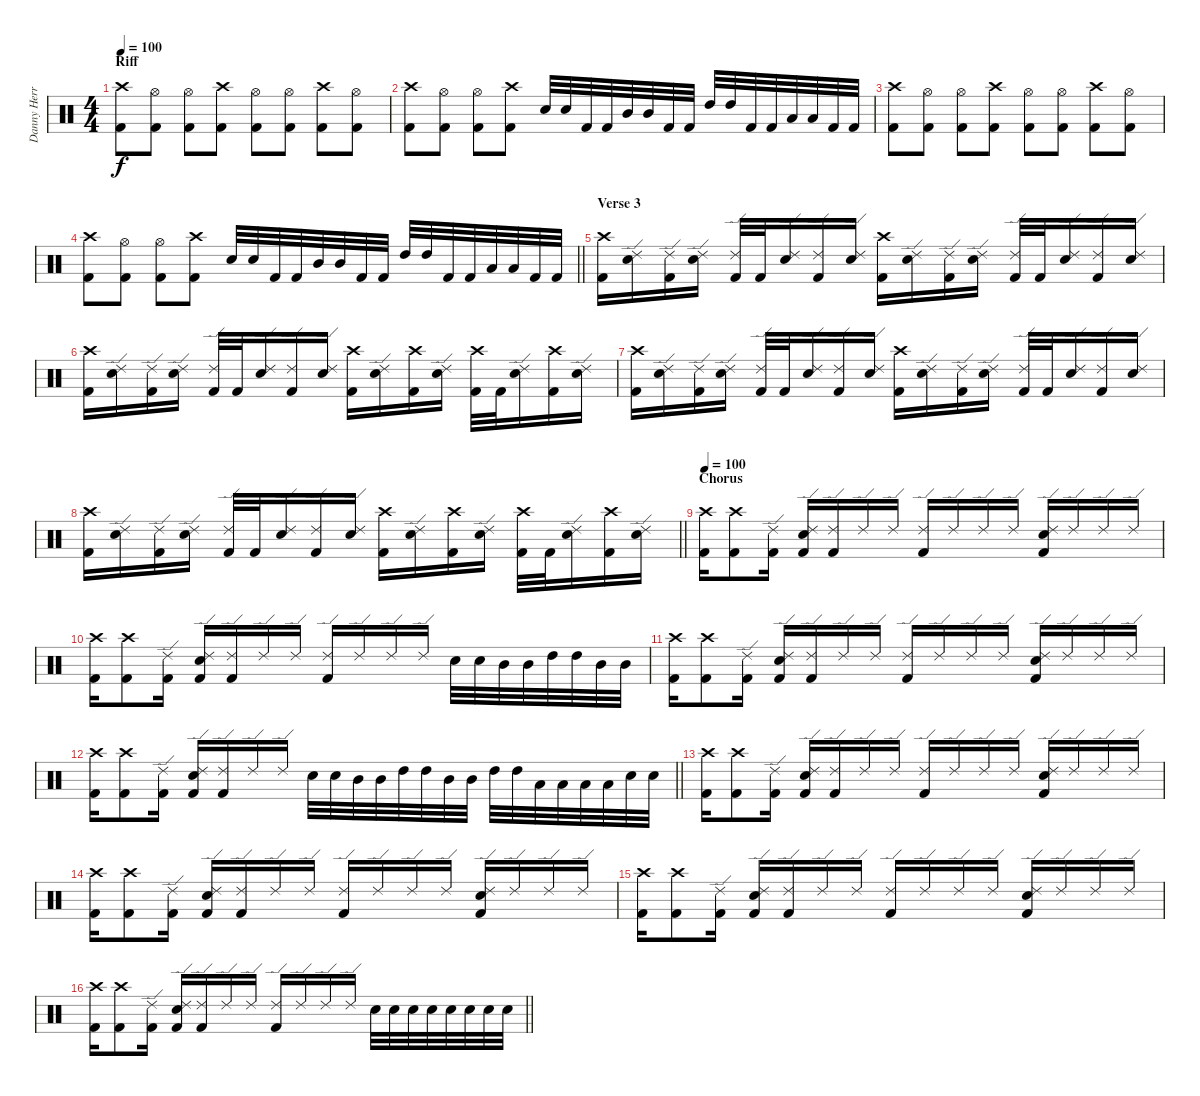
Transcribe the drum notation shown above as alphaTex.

\track ("Danny Herrera" "Danny Herr") {instrument percussion}
\staff {score}
\articulation defaults
\ts (4 4)
\section ("" "Riff")
\tempo 100
\clef neutral
\ks c
("Kick (hit) 2" "Crash high (hit)").8{dy f} ("Kick (hit) 2" "Hi-Hat (open)").8 ("Kick (hit) 2" "Hi-Hat (open)").8 ("Kick (hit) 2" "Crash high (hit)").8 ("Kick (hit) 2" "Hi-Hat (open)").8 ("Kick (hit) 2" "Hi-Hat (open)").8 ("Kick (hit) 2" "Crash high (hit)").8 ("Kick (hit) 2" "Hi-Hat (open)").8 |
("Kick (hit) 2" "Crash high (hit)").8 ("Kick (hit) 2" "Hi-Hat (open)").8 ("Kick (hit) 2" "Hi-Hat (open)").8 ("Kick (hit) 2" "Crash high (hit)").8 "Snare (hit) 2".32 "Snare (hit) 2".32 "Kick (hit) 2".32 "Kick (hit) 2".32 "Mid Tom (hit)".32 "Mid Tom (hit)".32 "Kick (hit) 2".32 "Kick (hit) 2".32 "High Tom (hit)".32 "High Tom (hit)".32 "Kick (hit) 2".32 "Kick (hit) 2".32 "Low Tom (hit)".32 "Low Tom (hit)".32 "Kick (hit) 2".32 "Kick (hit) 2".32 |
("Kick (hit) 2" "Crash high (hit)").8 ("Kick (hit) 2" "Hi-Hat (open)").8 ("Kick (hit) 2" "Hi-Hat (open)").8 ("Kick (hit) 2" "Crash high (hit)").8 ("Kick (hit) 2" "Hi-Hat (open)").8 ("Kick (hit) 2" "Hi-Hat (open)").8 ("Kick (hit) 2" "Crash high (hit)").8 ("Kick (hit) 2" "Hi-Hat (open)").8 |
\barLineRight lightlight
("Kick (hit) 2" "Crash high (hit)").8 ("Kick (hit) 2" "Hi-Hat (open)").8 ("Kick (hit) 2" "Hi-Hat (open)").8 ("Kick (hit) 2" "Crash high (hit)").8 "Snare (hit) 2".32 "Snare (hit) 2".32 "Kick (hit) 2".32 "Kick (hit) 2".32 "Mid Tom (hit)".32 "Mid Tom (hit)".32 "Kick (hit) 2".32 "Kick (hit) 2".32 "High Tom (hit)".32 "High Tom (hit)".32 "Kick (hit) 2".32 "Kick (hit) 2".32 "Low Tom (hit)".32 "Low Tom (hit)".32 "Kick (hit) 2".32 "Kick (hit) 2".32 |
\section ("" "Verse 3")
("Kick (hit) 2" "Crash high (hit)").16 ("Snare (hit) 2" "Ride (edge) 2").16 ("Kick (hit) 2" "Ride (edge) 2").16 ("Snare (hit) 2" "Ride (edge) 2").16 ("Kick (hit) 2" "Ride (edge) 2").32 "Kick (hit) 2".32 ("Snare (hit) 2" "Ride (edge) 2").16 ("Kick (hit) 2" "Ride (edge) 2").16 ("Snare (hit) 2" "Ride (edge) 2").16 ("Kick (hit) 2" "Crash high (hit)").16 ("Snare (hit) 2" "Ride (edge) 2").16 ("Kick (hit) 2" "Ride (edge) 2").16 ("Snare (hit) 2" "Ride (edge) 2").16 ("Kick (hit) 2" "Ride (edge) 2").32 "Kick (hit) 2".32 ("Snare (hit) 2" "Ride (edge) 2").16 ("Kick (hit) 2" "Ride (edge) 2").16 ("Snare (hit) 2" "Ride (edge) 2").16 |
("Kick (hit) 2" "Crash high (hit)").16 ("Snare (hit) 2" "Ride (edge) 2").16 ("Kick (hit) 2" "Ride (edge) 2").16 ("Snare (hit) 2" "Ride (edge) 2").16 ("Kick (hit) 2" "Ride (edge) 2").32 "Kick (hit) 2".32 ("Snare (hit) 2" "Ride (edge) 2").16 ("Kick (hit) 2" "Ride (edge) 2").16 ("Snare (hit) 2" "Ride (edge) 2").16 ("Kick (hit) 2" "Crash high (hit)").16 ("Snare (hit) 2" "Ride (edge) 2").16 ("Kick (hit) 2" "Crash high (hit)").16 ("Snare (hit) 2" "Ride (edge) 2").16 ("Kick (hit) 2" "Crash high (hit)").32 "Kick (hit) 2".32 ("Snare (hit) 2" "Ride (edge) 2").16 ("Kick (hit) 2" "Crash high (hit)").16 ("Snare (hit) 2" "Ride (edge) 2").16 |
("Kick (hit) 2" "Crash high (hit)").16 ("Snare (hit) 2" "Ride (edge) 2").16 ("Kick (hit) 2" "Ride (edge) 2").16 ("Snare (hit) 2" "Ride (edge) 2").16 ("Kick (hit) 2" "Ride (edge) 2").32 "Kick (hit) 2".32 ("Snare (hit) 2" "Ride (edge) 2").16 ("Kick (hit) 2" "Ride (edge) 2").16 ("Snare (hit) 2" "Ride (edge) 2").16 ("Kick (hit) 2" "Crash high (hit)").16 ("Snare (hit) 2" "Ride (edge) 2").16 ("Kick (hit) 2" "Ride (edge) 2").16 ("Snare (hit) 2" "Ride (edge) 2").16 ("Kick (hit) 2" "Ride (edge) 2").32 "Kick (hit) 2".32 ("Snare (hit) 2" "Ride (edge) 2").16 ("Kick (hit) 2" "Ride (edge) 2").16 ("Snare (hit) 2" "Ride (edge) 2").16 |
\barLineRight lightlight
("Kick (hit) 2" "Crash high (hit)").16 ("Snare (hit) 2" "Ride (edge) 2").16 ("Kick (hit) 2" "Ride (edge) 2").16 ("Snare (hit) 2" "Ride (edge) 2").16 ("Kick (hit) 2" "Ride (edge) 2").32 "Kick (hit) 2".32 ("Snare (hit) 2" "Ride (edge) 2").16 ("Kick (hit) 2" "Ride (edge) 2").16 ("Snare (hit) 2" "Ride (edge) 2").16 ("Kick (hit) 2" "Crash high (hit)").16 ("Snare (hit) 2" "Ride (edge) 2").16 ("Kick (hit) 2" "Crash high (hit)").16 ("Snare (hit) 2" "Ride (edge) 2").16 ("Kick (hit) 2" "Crash high (hit)").32 "Kick (hit) 2".32 ("Snare (hit) 2" "Ride (edge) 2").16 ("Kick (hit) 2" "Crash high (hit)").16 ("Snare (hit) 2" "Ride (edge) 2").16 |
\section ("" "Chorus")
\tempo 100
("Kick (hit) 2" "Crash high (hit)").16 ("Kick (hit) 2" "Crash high (hit)").8 ("Kick (hit) 2" "Ride (edge) 2").16 ("Kick (hit) 2" "Snare (hit) 2" "Ride (edge) 2").16 ("Kick (hit) 2" "Ride (edge) 2").16 "Ride (edge) 2".16 "Ride (edge) 2".16 ("Kick (hit) 2" "Ride (edge) 2").16 "Ride (edge) 2".16 "Ride (edge) 2".16 "Ride (edge) 2".16 ("Kick (hit) 2" "Snare (hit) 2" "Ride (edge) 2").16 "Ride (edge) 2".16 "Ride (edge) 2".16 "Ride (edge) 2".16 |
("Kick (hit) 2" "Crash high (hit)").16 ("Kick (hit) 2" "Crash high (hit)").8 ("Kick (hit) 2" "Ride (edge) 2").16 ("Kick (hit) 2" "Snare (hit) 2" "Ride (edge) 2").16 ("Kick (hit) 2" "Ride (edge) 2").16 "Ride (edge) 2".16 "Ride (edge) 2".16 ("Kick (hit) 2" "Ride (edge) 2").16 "Ride (edge) 2".16 "Ride (edge) 2".16 "Ride (edge) 2".16 "Snare (hit) 2".32 "Snare (hit) 2".32 "Mid Tom (hit)".32 "Mid Tom (hit)".32 "High Tom (hit)".32 "High Tom (hit)".32 "Mid Tom (hit)".32 "Mid Tom (hit)".32 |
("Kick (hit) 2" "Crash high (hit)").16 ("Kick (hit) 2" "Crash high (hit)").8 ("Kick (hit) 2" "Ride (edge) 2").16 ("Kick (hit) 2" "Snare (hit) 2" "Ride (edge) 2").16 ("Kick (hit) 2" "Ride (edge) 2").16 "Ride (edge) 2".16 "Ride (edge) 2".16 ("Kick (hit) 2" "Ride (edge) 2").16 "Ride (edge) 2".16 "Ride (edge) 2".16 "Ride (edge) 2".16 ("Kick (hit) 2" "Snare (hit) 2" "Ride (edge) 2").16 "Ride (edge) 2".16 "Ride (edge) 2".16 "Ride (edge) 2".16 |
\barLineRight lightlight
("Kick (hit) 2" "Crash high (hit)").16 ("Kick (hit) 2" "Crash high (hit)").8 ("Kick (hit) 2" "Ride (edge) 2").16 ("Kick (hit) 2" "Snare (hit) 2" "Ride (edge) 2").16 ("Kick (hit) 2" "Ride (edge) 2").16 "Ride (edge) 2".16 "Ride (edge) 2".16 "Snare (hit) 2".32 "Snare (hit) 2".32 "Mid Tom (hit)".32 "Mid Tom (hit)".32 "High Tom (hit)".32 "High Tom (hit)".32 "Mid Tom (hit)".32 "Mid Tom (hit)".32 "High Tom (hit)".32 "High Tom (hit)".32 "Low Tom (hit)".32 "Low Tom (hit)".32 "Low Tom (hit)".32 "Low Tom (hit)".32 "Snare (hit) 2".32 "Snare (hit) 2".32 |
("Kick (hit) 2" "Crash high (hit)").16 ("Kick (hit) 2" "Crash high (hit)").8 ("Kick (hit) 2" "Ride (edge) 2").16 ("Kick (hit) 2" "Snare (hit) 2" "Ride (edge) 2").16 ("Kick (hit) 2" "Ride (edge) 2").16 "Ride (edge) 2".16 "Ride (edge) 2".16 ("Kick (hit) 2" "Ride (edge) 2").16 "Ride (edge) 2".16 "Ride (edge) 2".16 "Ride (edge) 2".16 ("Kick (hit) 2" "Snare (hit) 2" "Ride (edge) 2").16 "Ride (edge) 2".16 "Ride (edge) 2".16 "Ride (edge) 2".16 |
("Kick (hit) 2" "Crash high (hit)").16 ("Kick (hit) 2" "Crash high (hit)").8 ("Kick (hit) 2" "Ride (edge) 2").16 ("Kick (hit) 2" "Snare (hit) 2" "Ride (edge) 2").16 ("Kick (hit) 2" "Ride (edge) 2").16 "Ride (edge) 2".16 "Ride (edge) 2".16 ("Kick (hit) 2" "Ride (edge) 2").16 "Ride (edge) 2".16 "Ride (edge) 2".16 "Ride (edge) 2".16 ("Kick (hit) 2" "Snare (hit) 2" "Ride (edge) 2").16 "Ride (edge) 2".16 "Ride (edge) 2".16 "Ride (edge) 2".16 |
("Kick (hit) 2" "Crash high (hit)").16 ("Kick (hit) 2" "Crash high (hit)").8 ("Kick (hit) 2" "Ride (edge) 2").16 ("Kick (hit) 2" "Snare (hit) 2" "Ride (edge) 2").16 ("Kick (hit) 2" "Ride (edge) 2").16 "Ride (edge) 2".16 "Ride (edge) 2".16 ("Kick (hit) 2" "Ride (edge) 2").16 "Ride (edge) 2".16 "Ride (edge) 2".16 "Ride (edge) 2".16 ("Kick (hit) 2" "Snare (hit) 2" "Ride (edge) 2").16 "Ride (edge) 2".16 "Ride (edge) 2".16 "Ride (edge) 2".16 |
\barLineRight lightlight
("Kick (hit) 2" "Crash high (hit)").16 ("Kick (hit) 2" "Crash high (hit)").8 ("Kick (hit) 2" "Ride (edge) 2").16 ("Kick (hit) 2" "Snare (hit) 2" "Ride (edge) 2").16 ("Kick (hit) 2" "Ride (edge) 2").16 "Ride (edge) 2".16 "Ride (edge) 2".16 ("Kick (hit) 2" "Ride (edge) 2").16 "Ride (edge) 2".16 "Ride (edge) 2".16 "Ride (edge) 2".16 "Snare (hit) 2".32 "Snare (hit) 2".32 "Snare (hit) 2".32 "Snare (hit) 2".32 "Snare (hit) 2".32 "Snare (hit) 2".32 "Snare (hit) 2".32 "Snare (hit) 2".32
